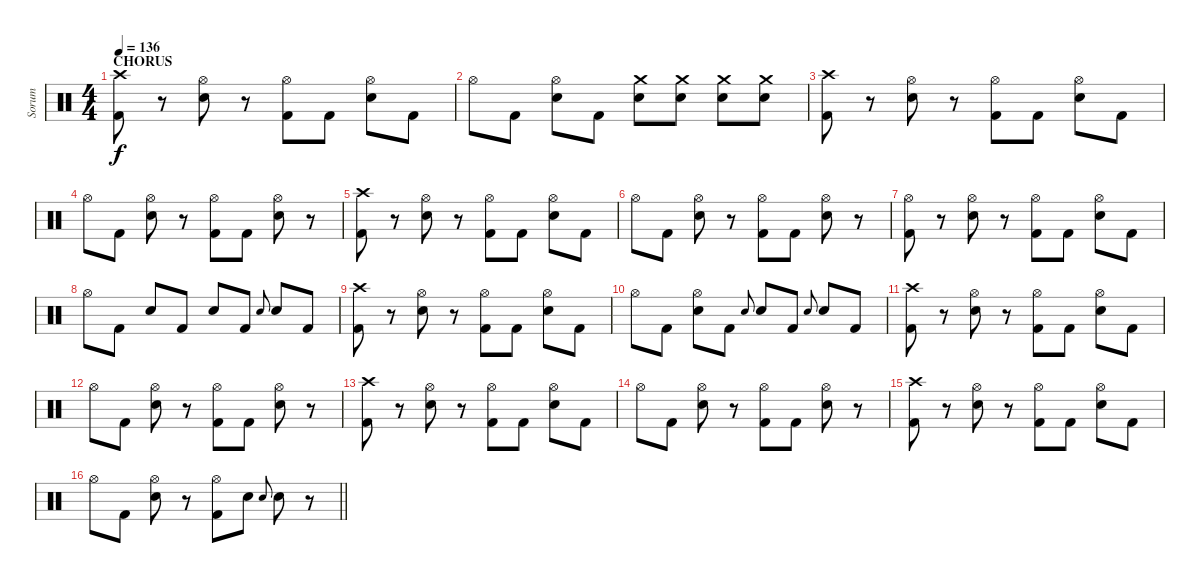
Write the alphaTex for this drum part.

\track ("Sorum" "Sorum") {instrument percussion}
\staff {score}
\articulation defaults
\ts (4 4)
\section ("" "CHORUS")
\tempo 136
\clef neutral
\ks c
("Crash high (hit)" "Kick (hit) 2").8{dy f} r.8 ("Electric Snare (hit)" "Hi-Hat (open)").8 r.8 ("Kick (hit) 2" "Hi-Hat (open)").8 "Kick (hit) 2".8 ("Electric Snare (hit)" "Hi-Hat (open)").8 "Kick (hit) 2".8 |
"Hi-Hat (open)".8 "Kick (hit) 2".8 ("Electric Snare (hit)" "Hi-Hat (open)").8 "Kick (hit) 2".8 ("Crash medium (hit)" "Electric Snare (hit)").8 ("Crash medium (hit)" "Electric Snare (hit)").8 ("Crash medium (hit)" "Electric Snare (hit)").8 ("Crash medium (hit)" "Electric Snare (hit)").8 |
("Crash high (hit)" "Kick (hit) 2").8 r.8 ("Electric Snare (hit)" "Hi-Hat (open)").8 r.8 ("Kick (hit) 2" "Hi-Hat (open)").8 "Kick (hit) 2".8 ("Electric Snare (hit)" "Hi-Hat (open)").8 "Kick (hit) 2".8 |
"Hi-Hat (open)".8 "Kick (hit) 2".8 ("Electric Snare (hit)" "Hi-Hat (open)").8 r.8 ("Kick (hit) 2" "Hi-Hat (open)").8 "Kick (hit) 2".8 ("Electric Snare (hit)" "Hi-Hat (open)").8 r.8 |
("Crash high (hit)" "Kick (hit) 2").8 r.8 ("Electric Snare (hit)" "Hi-Hat (open)").8 r.8 ("Kick (hit) 2" "Hi-Hat (open)").8 "Kick (hit) 2".8 ("Electric Snare (hit)" "Hi-Hat (open)").8 "Kick (hit) 2".8 |
"Hi-Hat (open)".8 "Kick (hit) 2".8 ("Electric Snare (hit)" "Hi-Hat (open)").8 r.8 ("Kick (hit) 2" "Hi-Hat (open)").8 "Kick (hit) 2".8 ("Electric Snare (hit)" "Hi-Hat (open)").8 r.8 |
("Kick (hit) 2" "Hi-Hat (open)").8 r.8 ("Electric Snare (hit)" "Hi-Hat (open)").8 r.8 ("Kick (hit) 2" "Hi-Hat (open)").8 "Kick (hit) 2".8 ("Electric Snare (hit)" "Hi-Hat (open)").8 "Kick (hit) 2".8 |
"Hi-Hat (open)".8 "Kick (hit) 2".8 "Electric Snare (hit)".8 "Kick (hit) 2".8 "Electric Snare (hit)".8 "Kick (hit) 2".8 "Electric Snare (hit)".8{gr onbeat} "Electric Snare (hit)".8 "Kick (hit) 2".8 |
("Crash high (hit)" "Kick (hit) 2").8 r.8 ("Electric Snare (hit)" "Hi-Hat (open)").8 r.8 ("Kick (hit) 2" "Hi-Hat (open)").8 "Kick (hit) 2".8 ("Electric Snare (hit)" "Hi-Hat (open)").8 "Kick (hit) 2".8 |
"Hi-Hat (open)".8 "Kick (hit) 2".8 ("Electric Snare (hit)" "Hi-Hat (open)").8 "Kick (hit) 2".8 "Electric Snare (hit)".8{gr onbeat} "Electric Snare (hit)".8 "Kick (hit) 2".8 "Electric Snare (hit)".8{gr onbeat} "Electric Snare (hit)".8 "Kick (hit) 2".8 |
("Crash high (hit)" "Kick (hit) 2").8 r.8 ("Electric Snare (hit)" "Hi-Hat (open)").8 r.8 ("Kick (hit) 2" "Hi-Hat (open)").8 "Kick (hit) 2".8 ("Electric Snare (hit)" "Hi-Hat (open)").8 "Kick (hit) 2".8 |
"Hi-Hat (open)".8 "Kick (hit) 2".8 ("Electric Snare (hit)" "Hi-Hat (open)").8 r.8 ("Kick (hit) 2" "Hi-Hat (open)").8 "Kick (hit) 2".8 ("Electric Snare (hit)" "Hi-Hat (open)").8 r.8 |
("Crash high (hit)" "Kick (hit) 2").8 r.8 ("Electric Snare (hit)" "Hi-Hat (open)").8 r.8 ("Kick (hit) 2" "Hi-Hat (open)").8 "Kick (hit) 2".8 ("Electric Snare (hit)" "Hi-Hat (open)").8 "Kick (hit) 2".8 |
"Hi-Hat (open)".8 "Kick (hit) 2".8 ("Electric Snare (hit)" "Hi-Hat (open)").8 r.8 ("Kick (hit) 2" "Hi-Hat (open)").8 "Kick (hit) 2".8 ("Electric Snare (hit)" "Hi-Hat (open)").8 r.8 |
("Crash high (hit)" "Kick (hit) 2").8 r.8 ("Electric Snare (hit)" "Hi-Hat (open)").8 r.8 ("Kick (hit) 2" "Hi-Hat (open)").8 "Kick (hit) 2".8 ("Electric Snare (hit)" "Hi-Hat (open)").8 "Kick (hit) 2".8 |
\barLineRight lightlight "Hi-Hat (open)".8 "Kick (hit) 2".8
("Electric Snare (hit)" "Hi-Hat (open)").8 r.8 ("Kick (hit) 2" "Hi-Hat (open)").8 "Electric Snare (hit)".8 "Electric Snare (hit)".8{gr onbeat} "Electric Snare (hit)".8 r.8
